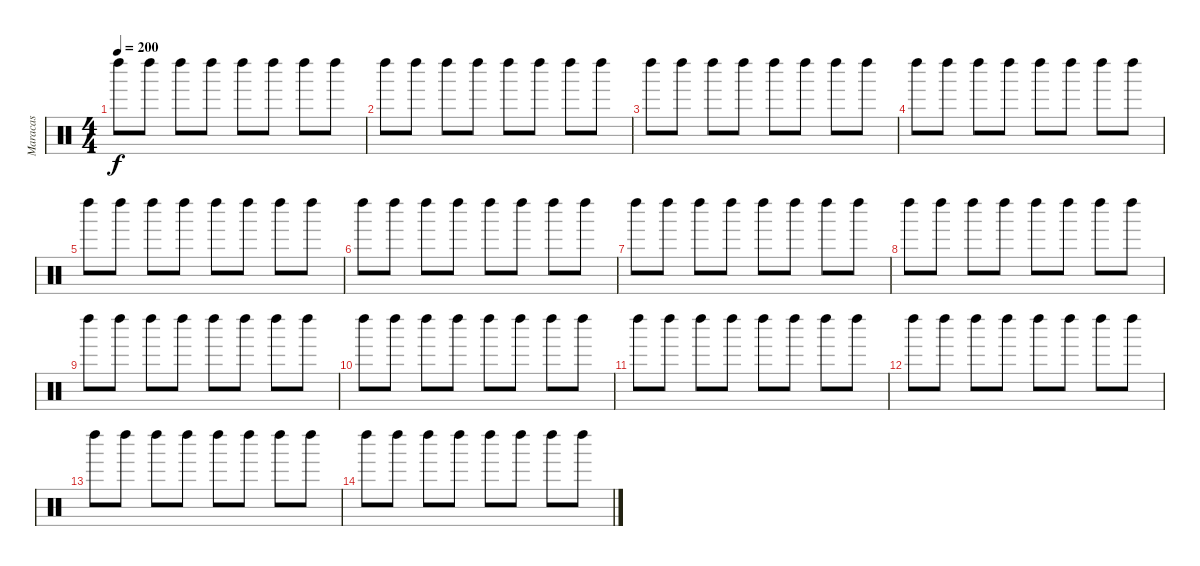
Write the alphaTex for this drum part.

\track ("Maracas" "Maracas") {instrument percussion}
\staff {score}
\articulation defaults
\ts (4 4)
\tempo 200
\clef neutral
\ks c "Left Maraca (hit)".8{dy f} "Left Maraca (hit)".8 "Left Maraca (hit)".8 "Left Maraca (hit)".8 "Left Maraca (hit)".8 "Left Maraca (hit)".8 "Left Maraca (hit)".8 "Left Maraca (hit)".8
|
"Left Maraca (hit)".8 "Left Maraca (hit)".8 "Left Maraca (hit)".8 "Left Maraca (hit)".8 "Left Maraca (hit)".8 "Left Maraca (hit)".8 "Left Maraca (hit)".8 "Left Maraca (hit)".8 |
"Left Maraca (hit)".8 "Left Maraca (hit)".8 "Left Maraca (hit)".8 "Left Maraca (hit)".8 "Left Maraca (hit)".8 "Left Maraca (hit)".8 "Left Maraca (hit)".8 "Left Maraca (hit)".8 |
"Left Maraca (hit)".8 "Left Maraca (hit)".8 "Left Maraca (hit)".8 "Left Maraca (hit)".8 "Left Maraca (hit)".8 "Left Maraca (hit)".8 "Left Maraca (hit)".8 "Left Maraca (hit)".8 |
"Left Maraca (hit)".8 "Left Maraca (hit)".8 "Left Maraca (hit)".8 "Left Maraca (hit)".8 "Left Maraca (hit)".8 "Left Maraca (hit)".8 "Left Maraca (hit)".8 "Left Maraca (hit)".8 |
"Left Maraca (hit)".8 "Left Maraca (hit)".8 "Left Maraca (hit)".8 "Left Maraca (hit)".8 "Left Maraca (hit)".8 "Left Maraca (hit)".8 "Left Maraca (hit)".8 "Left Maraca (hit)".8 |
"Left Maraca (hit)".8 "Left Maraca (hit)".8 "Left Maraca (hit)".8 "Left Maraca (hit)".8 "Left Maraca (hit)".8 "Left Maraca (hit)".8 "Left Maraca (hit)".8 "Left Maraca (hit)".8 |
"Left Maraca (hit)".8 "Left Maraca (hit)".8 "Left Maraca (hit)".8 "Left Maraca (hit)".8 "Left Maraca (hit)".8 "Left Maraca (hit)".8 "Left Maraca (hit)".8 "Left Maraca (hit)".8 |
"Left Maraca (hit)".8 "Left Maraca (hit)".8 "Left Maraca (hit)".8 "Left Maraca (hit)".8 "Left Maraca (hit)".8 "Left Maraca (hit)".8 "Left Maraca (hit)".8 "Left Maraca (hit)".8 |
"Left Maraca (hit)".8 "Left Maraca (hit)".8 "Left Maraca (hit)".8 "Left Maraca (hit)".8 "Left Maraca (hit)".8 "Left Maraca (hit)".8 "Left Maraca (hit)".8 "Left Maraca (hit)".8 |
"Left Maraca (hit)".8 "Left Maraca (hit)".8 "Left Maraca (hit)".8 "Left Maraca (hit)".8 "Left Maraca (hit)".8 "Left Maraca (hit)".8 "Left Maraca (hit)".8 "Left Maraca (hit)".8 |
"Left Maraca (hit)".8 "Left Maraca (hit)".8 "Left Maraca (hit)".8 "Left Maraca (hit)".8 "Left Maraca (hit)".8 "Left Maraca (hit)".8 "Left Maraca (hit)".8 "Left Maraca (hit)".8 |
"Left Maraca (hit)".8 "Left Maraca (hit)".8 "Left Maraca (hit)".8 "Left Maraca (hit)".8 "Left Maraca (hit)".8 "Left Maraca (hit)".8 "Left Maraca (hit)".8 "Left Maraca (hit)".8 |
"Left Maraca (hit)".8 "Left Maraca (hit)".8 "Left Maraca (hit)".8 "Left Maraca (hit)".8 "Left Maraca (hit)".8 "Left Maraca (hit)".8 "Left Maraca (hit)".8 "Left Maraca (hit)".8
